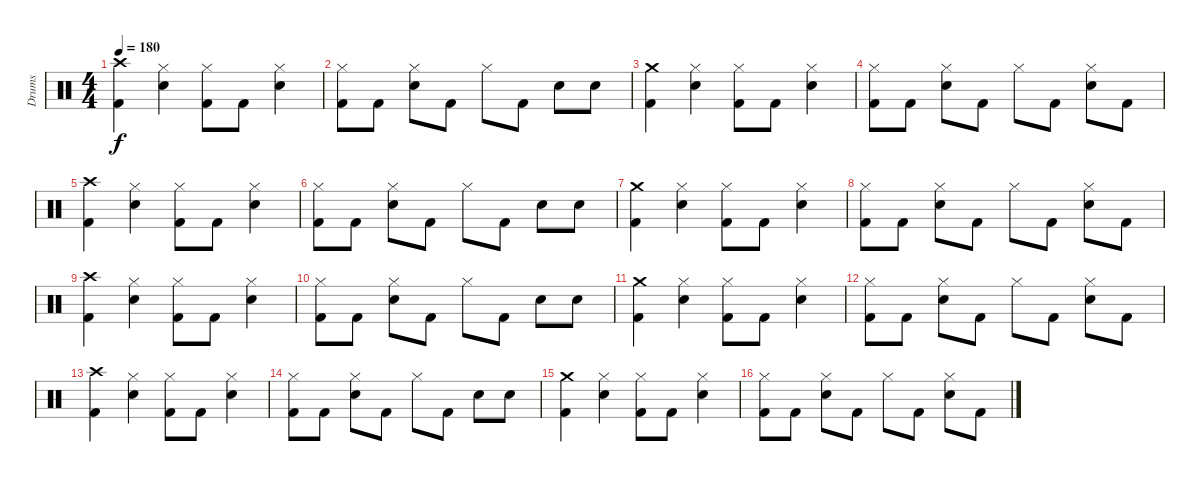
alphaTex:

\track ("Drums" "Drums") {instrument percussion}
\staff {score}
\articulation defaults
\ts (4 4)
\tempo 180
\clef neutral
\ks c
("Crash high (hit)" "Kick (hit) 2").4{dy f} ("Hi-Hat (closed)" "Electric Snare (hit)").4 ("Hi-Hat (closed)" "Kick (hit) 2").8 "Kick (hit) 2".8 ("Hi-Hat (closed)" "Electric Snare (hit)").4 |
("Hi-Hat (closed)" "Kick (hit) 2").8 "Kick (hit) 2".8 ("Hi-Hat (closed)" "Electric Snare (hit)").8 "Kick (hit) 2".8 "Hi-Hat (closed)".8 "Kick (hit) 2".8 "Electric Snare (hit)".8 "Electric Snare (hit)".8 |
("Crash medium (hit)" "Kick (hit) 2").4 ("Hi-Hat (closed)" "Electric Snare (hit)").4 ("Hi-Hat (closed)" "Kick (hit) 2").8 "Kick (hit) 2".8 ("Hi-Hat (closed)" "Electric Snare (hit)").4 |
("Hi-Hat (closed)" "Kick (hit) 2").8 "Kick (hit) 2".8 ("Hi-Hat (closed)" "Electric Snare (hit)").8 "Kick (hit) 2".8 "Hi-Hat (closed)".8 "Kick (hit) 2".8 ("Hi-Hat (closed)" "Electric Snare (hit)").8 "Kick (hit) 2".8 |
("Crash high (hit)" "Kick (hit) 2").4 ("Hi-Hat (closed)" "Electric Snare (hit)").4 ("Hi-Hat (closed)" "Kick (hit) 2").8 "Kick (hit) 2".8 ("Hi-Hat (closed)" "Electric Snare (hit)").4 |
("Hi-Hat (closed)" "Kick (hit) 2").8 "Kick (hit) 2".8 ("Hi-Hat (closed)" "Electric Snare (hit)").8 "Kick (hit) 2".8 "Hi-Hat (closed)".8 "Kick (hit) 2".8 "Electric Snare (hit)".8 "Electric Snare (hit)".8 |
("Crash medium (hit)" "Kick (hit) 2").4 ("Hi-Hat (closed)" "Electric Snare (hit)").4 ("Hi-Hat (closed)" "Kick (hit) 2").8 "Kick (hit) 2".8 ("Hi-Hat (closed)" "Electric Snare (hit)").4 |
("Hi-Hat (closed)" "Kick (hit) 2").8 "Kick (hit) 2".8 ("Hi-Hat (closed)" "Electric Snare (hit)").8 "Kick (hit) 2".8 "Hi-Hat (closed)".8 "Kick (hit) 2".8 ("Hi-Hat (closed)" "Electric Snare (hit)").8 "Kick (hit) 2".8 |
("Crash high (hit)" "Kick (hit) 2").4 ("Hi-Hat (closed)" "Electric Snare (hit)").4 ("Hi-Hat (closed)" "Kick (hit) 2").8 "Kick (hit) 2".8 ("Hi-Hat (closed)" "Electric Snare (hit)").4 |
("Hi-Hat (closed)" "Kick (hit) 2").8 "Kick (hit) 2".8 ("Hi-Hat (closed)" "Electric Snare (hit)").8 "Kick (hit) 2".8 "Hi-Hat (closed)".8 "Kick (hit) 2".8 "Electric Snare (hit)".8 "Electric Snare (hit)".8 |
("Crash medium (hit)" "Kick (hit) 2").4 ("Hi-Hat (closed)" "Electric Snare (hit)").4 ("Hi-Hat (closed)" "Kick (hit) 2").8 "Kick (hit) 2".8 ("Hi-Hat (closed)" "Electric Snare (hit)").4 |
("Hi-Hat (closed)" "Kick (hit) 2").8 "Kick (hit) 2".8 ("Hi-Hat (closed)" "Electric Snare (hit)").8 "Kick (hit) 2".8 "Hi-Hat (closed)".8 "Kick (hit) 2".8 ("Hi-Hat (closed)" "Electric Snare (hit)").8 "Kick (hit) 2".8 |
("Crash high (hit)" "Kick (hit) 2").4 ("Hi-Hat (closed)" "Electric Snare (hit)").4 ("Hi-Hat (closed)" "Kick (hit) 2").8 "Kick (hit) 2".8 ("Hi-Hat (closed)" "Electric Snare (hit)").4 |
("Hi-Hat (closed)" "Kick (hit) 2").8 "Kick (hit) 2".8 ("Hi-Hat (closed)" "Electric Snare (hit)").8 "Kick (hit) 2".8 "Hi-Hat (closed)".8 "Kick (hit) 2".8 "Electric Snare (hit)".8 "Electric Snare (hit)".8 |
("Crash medium (hit)" "Kick (hit) 2").4 ("Hi-Hat (closed)" "Electric Snare (hit)").4 ("Hi-Hat (closed)" "Kick (hit) 2").8 "Kick (hit) 2".8 ("Hi-Hat (closed)" "Electric Snare (hit)").4 |
("Hi-Hat (closed)" "Kick (hit) 2").8 "Kick (hit) 2".8 ("Hi-Hat (closed)" "Electric Snare (hit)").8 "Kick (hit) 2".8 "Hi-Hat (closed)".8 "Kick (hit) 2".8 ("Hi-Hat (closed)" "Electric Snare (hit)").8 "Kick (hit) 2".8
